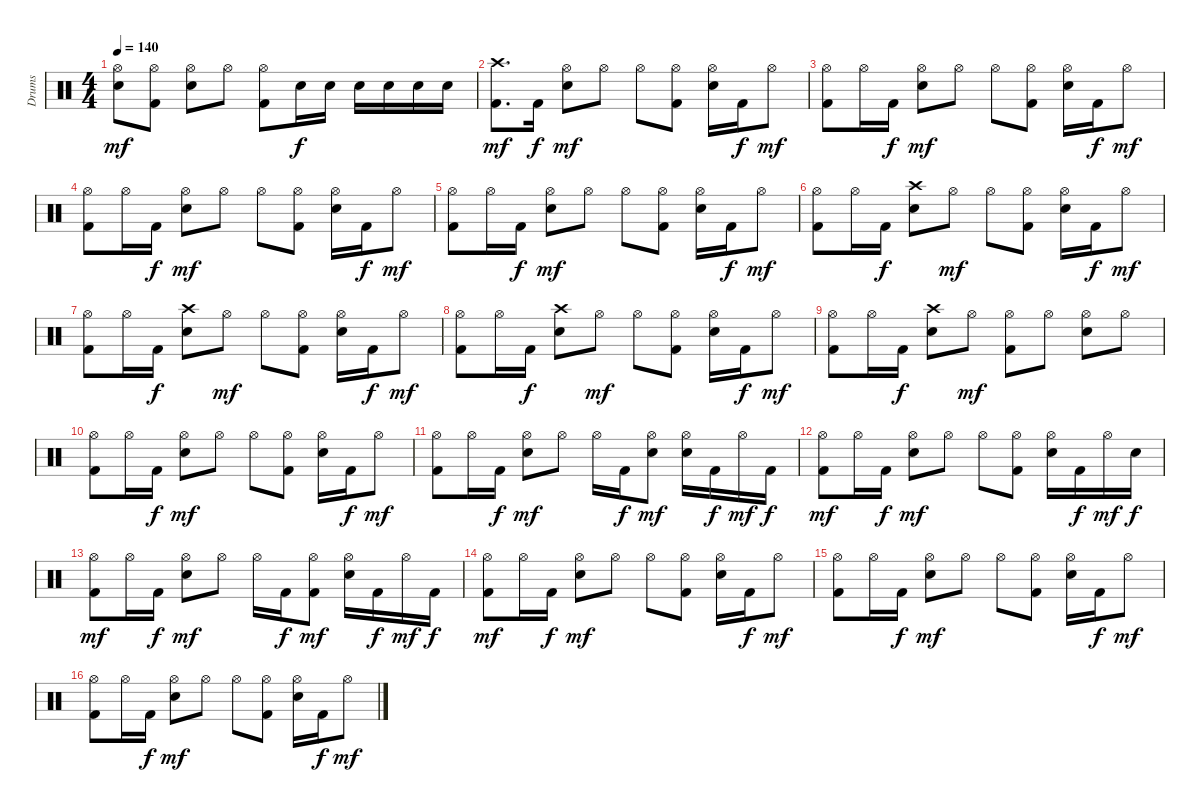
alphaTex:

\track ("Drums" "Drums") {instrument percussion}
\staff {score}
\articulation defaults
\ts (4 4)
\tempo 140
\clef neutral
\ks c
("Hi-Hat (open)" "Snare (hit)"{t}).8{dy mf} ("Hi-Hat (open)" "Kick (hit) 2").8 ("Hi-Hat (open)" "Electric Snare (hit)").8 "Hi-Hat (open)".8 ("Hi-Hat (open)" "Kick (hit) 2").8 "Electric Snare (hit)".16{dy f} "Electric Snare (hit)".16 "Electric Snare (hit)".16 "Electric Snare (hit)".16 "Electric Snare (hit)".16 "Electric Snare (hit)".16 |
("Crash high (hit)" "Kick (hit) 2").8{d dy mf} "Kick (hit) 2".16{dy f} ("Hi-Hat (open)" "Electric Snare (hit)").8{dy mf} "Hi-Hat (open)".8 "Hi-Hat (open)".8 ("Hi-Hat (open)" "Kick (hit) 2").8 ("Hi-Hat (open)" "Electric Snare (hit)").16 "Kick (hit) 2".16{dy f} "Hi-Hat (open)".8{dy mf} |
("Hi-Hat (open)" "Kick (hit) 2").8 "Hi-Hat (open)".16 "Kick (hit) 2".16{dy f} ("Hi-Hat (open)" "Electric Snare (hit)").8{dy mf} "Hi-Hat (open)".8 "Hi-Hat (open)".8 ("Hi-Hat (open)" "Kick (hit) 2").8 ("Hi-Hat (open)" "Electric Snare (hit)").16 "Kick (hit) 2".16{dy f} "Hi-Hat (open)".8{dy mf} |
("Hi-Hat (open)" "Kick (hit) 2").8 "Hi-Hat (open)".16 "Kick (hit) 2".16{dy f} ("Hi-Hat (open)" "Electric Snare (hit)").8{dy mf} "Hi-Hat (open)".8 "Hi-Hat (open)".8 ("Hi-Hat (open)" "Kick (hit) 2").8 ("Hi-Hat (open)" "Electric Snare (hit)").16 "Kick (hit) 2".16{dy f} "Hi-Hat (open)".8{dy mf} |
("Hi-Hat (open)" "Kick (hit) 2").8 "Hi-Hat (open)".16 "Kick (hit) 2".16{dy f} ("Hi-Hat (open)" "Electric Snare (hit)").8{dy mf} "Hi-Hat (open)".8 "Hi-Hat (open)".8 ("Hi-Hat (open)" "Kick (hit) 2").8 ("Hi-Hat (open)" "Electric Snare (hit)").16 "Kick (hit) 2".16{dy f} "Hi-Hat (open)".8{dy mf} |
("Hi-Hat (open)" "Kick (hit) 2").8 "Hi-Hat (open)".16 "Kick (hit) 2".16{dy f} ("Crash high (hit)" "Electric Snare (hit)").8 "Hi-Hat (open)".8{dy mf} "Hi-Hat (open)".8 ("Hi-Hat (open)" "Kick (hit) 2").8 ("Hi-Hat (open)" "Electric Snare (hit)").16 "Kick (hit) 2".16{dy f} "Hi-Hat (open)".8{dy mf} |
("Hi-Hat (open)" "Kick (hit) 2").8 "Hi-Hat (open)".16 "Kick (hit) 2".16{dy f} ("Crash high (hit)" "Electric Snare (hit)").8 "Hi-Hat (open)".8{dy mf} "Hi-Hat (open)".8 ("Hi-Hat (open)" "Kick (hit) 2").8 ("Hi-Hat (open)" "Electric Snare (hit)").16 "Kick (hit) 2".16{dy f} "Hi-Hat (open)".8{dy mf} |
("Hi-Hat (open)" "Kick (hit) 2").8 "Hi-Hat (open)".16 "Kick (hit) 2".16{dy f} ("Crash high (hit)" "Electric Snare (hit)").8 "Hi-Hat (open)".8{dy mf} "Hi-Hat (open)".8 ("Hi-Hat (open)" "Kick (hit) 2").8 ("Hi-Hat (open)" "Electric Snare (hit)").16 "Kick (hit) 2".16{dy f} "Hi-Hat (open)".8{dy mf} |
("Hi-Hat (open)" "Kick (hit) 2").8 "Hi-Hat (open)".16 "Kick (hit) 2".16{dy f} ("Crash high (hit)" "Electric Snare (hit)").8 "Hi-Hat (open)".8{dy mf} ("Hi-Hat (open)" "Kick (hit) 2").8 "Hi-Hat (open)".8 ("Hi-Hat (open)" "Electric Snare (hit)").8 "Hi-Hat (open)".8 |
("Hi-Hat (open)" "Kick (hit) 2").8 "Hi-Hat (open)".16 "Kick (hit) 2".16{dy f} ("Hi-Hat (open)" "Electric Snare (hit)").8{dy mf} "Hi-Hat (open)".8 "Hi-Hat (open)".8 ("Hi-Hat (open)" "Kick (hit) 2").8 ("Hi-Hat (open)" "Electric Snare (hit)").16 "Kick (hit) 2".16{dy f} "Hi-Hat (open)".8{dy mf} |
("Hi-Hat (open)" "Kick (hit) 2").8 "Hi-Hat (open)".16 "Kick (hit) 2".16{dy f} ("Hi-Hat (open)" "Electric Snare (hit)").8{dy mf} "Hi-Hat (open)".8 "Hi-Hat (open)".16 "Kick (hit) 2".16{dy f} ("Hi-Hat (open)" "Electric Snare (hit)").8{dy mf} ("Hi-Hat (open)" "Electric Snare (hit)").16 "Kick (hit) 2".16{dy f} "Hi-Hat (open)".16{dy mf} "Kick (hit) 2".16{dy f} |
("Hi-Hat (open)" "Kick (hit) 2").8{dy mf} "Hi-Hat (open)".16 "Kick (hit) 2".16{dy f} ("Hi-Hat (open)" "Electric Snare (hit)").8{dy mf} "Hi-Hat (open)".8 "Hi-Hat (open)".8 ("Hi-Hat (open)" "Kick (hit) 2").8 ("Hi-Hat (open)" "Electric Snare (hit)").16 "Kick (hit) 2".16{dy f} "Hi-Hat (open)".16{dy mf} "Electric Snare (hit)".16{dy f} |
("Hi-Hat (open)" "Kick (hit) 2").8{dy mf} "Hi-Hat (open)".16 "Kick (hit) 2".16{dy f} ("Hi-Hat (open)" "Electric Snare (hit)").8{dy mf} "Hi-Hat (open)".8 "Hi-Hat (open)".16 "Kick (hit) 2".16{dy f} ("Hi-Hat (open)" "Kick (hit) 2").8{dy mf} ("Hi-Hat (open)" "Electric Snare (hit)").16 "Kick (hit) 2".16{dy f} "Hi-Hat (open)".16{dy mf} "Kick (hit) 2".16{dy f} |
("Hi-Hat (open)" "Kick (hit) 2").8{dy mf} "Hi-Hat (open)".16 "Kick (hit) 2".16{dy f} ("Hi-Hat (open)" "Electric Snare (hit)").8{dy mf} "Hi-Hat (open)".8 "Hi-Hat (open)".8 ("Hi-Hat (open)" "Kick (hit) 2").8 ("Hi-Hat (open)" "Electric Snare (hit)").16 "Kick (hit) 2".16{dy f} "Hi-Hat (open)".8{dy mf} |
("Hi-Hat (open)" "Kick (hit) 2").8 "Hi-Hat (open)".16 "Kick (hit) 2".16{dy f} ("Hi-Hat (open)" "Electric Snare (hit)").8{dy mf} "Hi-Hat (open)".8 "Hi-Hat (open)".8 ("Hi-Hat (open)" "Kick (hit) 2").8 ("Hi-Hat (open)" "Electric Snare (hit)").16 "Kick (hit) 2".16{dy f} "Hi-Hat (open)".8{dy mf} |
("Hi-Hat (open)" "Kick (hit) 2").8 "Hi-Hat (open)".16 "Kick (hit) 2".16{dy f} ("Hi-Hat (open)" "Electric Snare (hit)").8{dy mf} "Hi-Hat (open)".8 "Hi-Hat (open)".8 ("Hi-Hat (open)" "Kick (hit) 2").8 ("Hi-Hat (open)" "Electric Snare (hit)").16 "Kick (hit) 2".16{dy f} "Hi-Hat (open)".8{dy mf}
